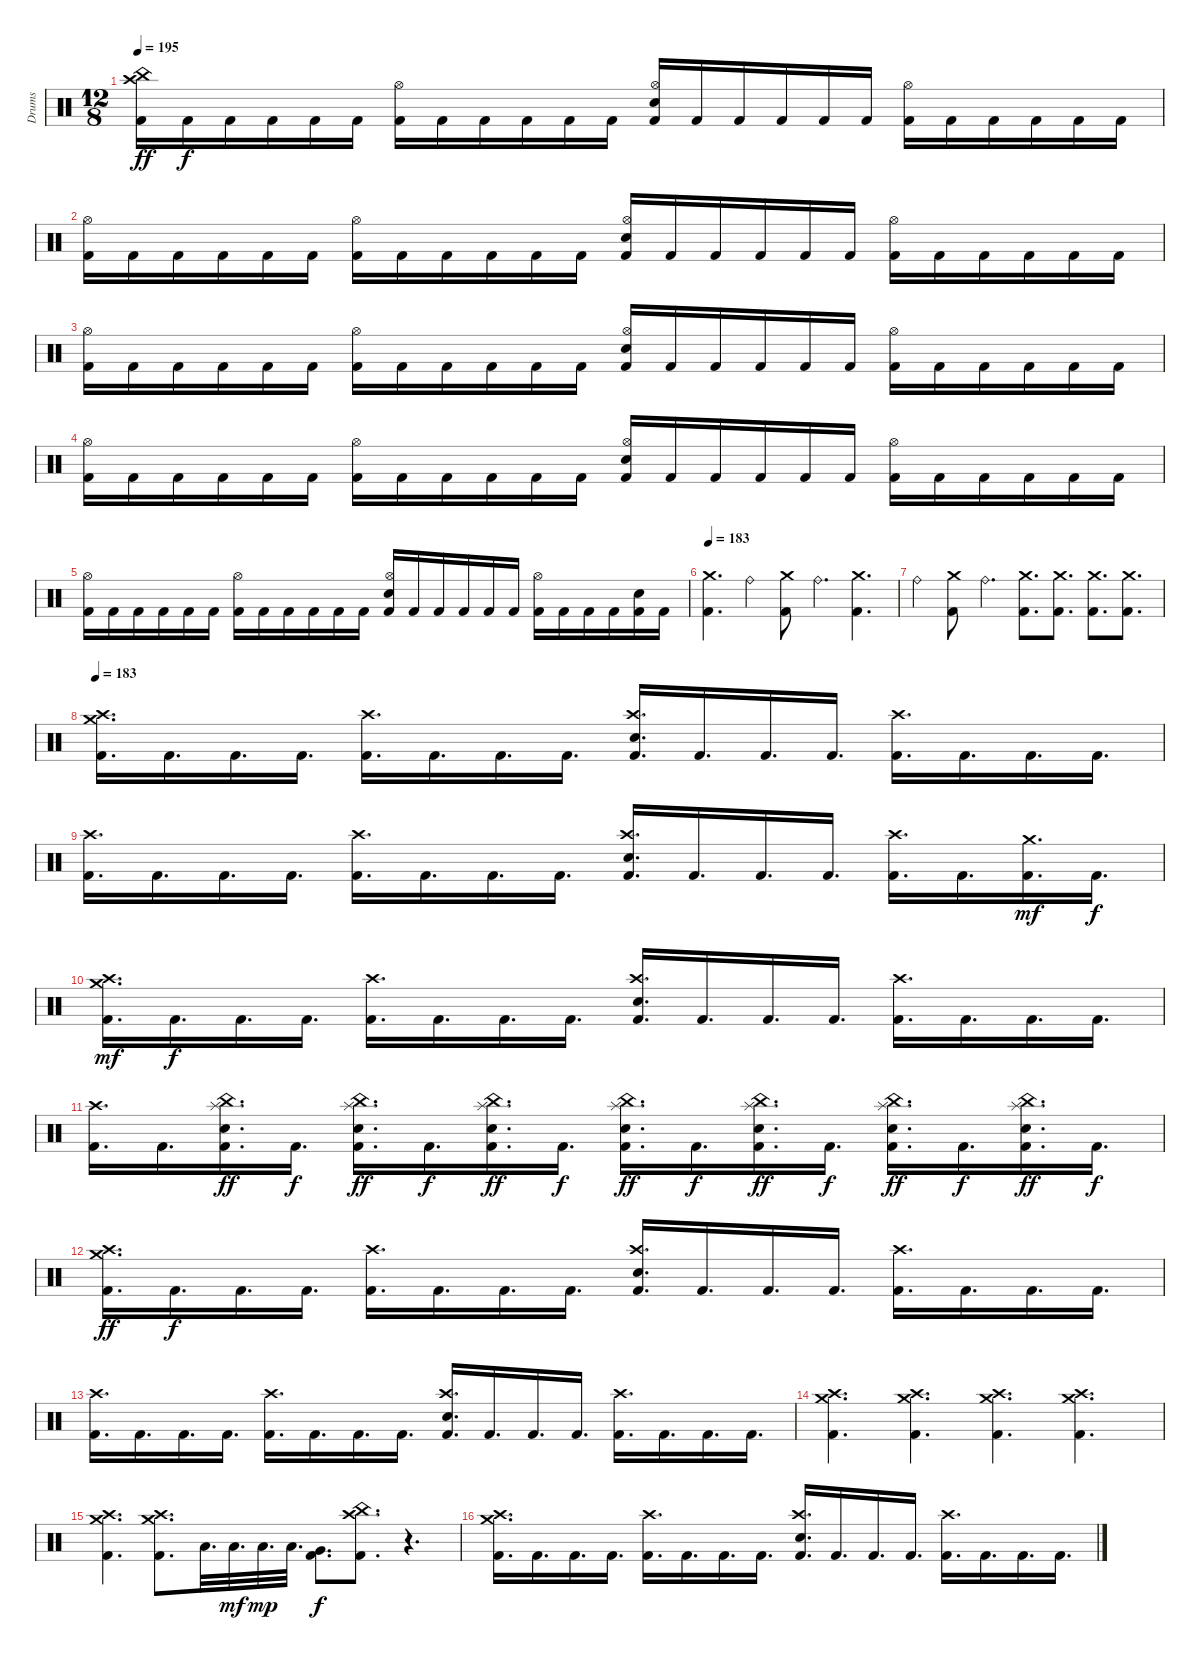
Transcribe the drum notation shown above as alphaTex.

\track ("Drums" "Drums") {instrument percussion}
\staff {score}
\articulation defaults
\ts (12 8)
\tempo 195
\clef neutral
\ks c
("Kick (hit) 2" "Crash high (hit)" "China (hit)").16{dy ff} "Kick (hit) 2".16{dy f} "Kick (hit) 2".16 "Kick (hit) 2".16 "Kick (hit) 2".16 "Kick (hit) 2".16 ("Kick (hit) 2" "Hi-Hat (open)").16 "Kick (hit) 2".16 "Kick (hit) 2".16 "Kick (hit) 2".16 "Kick (hit) 2".16 "Kick (hit) 2".16 ("Kick (hit) 2" "Electric Snare (hit)" "Hi-Hat (open)").16 "Kick (hit) 2".16 "Kick (hit) 2".16 "Kick (hit) 2".16 "Kick (hit) 2".16 "Kick (hit) 2".16 ("Kick (hit) 2" "Hi-Hat (open)").16 "Kick (hit) 2".16 "Kick (hit) 2".16 "Kick (hit) 2".16 "Kick (hit) 2".16 "Kick (hit) 2".16 |
("Kick (hit) 2" "Hi-Hat (open)").16 "Kick (hit) 2".16 "Kick (hit) 2".16 "Kick (hit) 2".16 "Kick (hit) 2".16 "Kick (hit) 2".16 ("Kick (hit) 2" "Hi-Hat (open)").16 "Kick (hit) 2".16 "Kick (hit) 2".16 "Kick (hit) 2".16 "Kick (hit) 2".16 "Kick (hit) 2".16 ("Kick (hit) 2" "Electric Snare (hit)" "Hi-Hat (open)").16 "Kick (hit) 2".16 "Kick (hit) 2".16 "Kick (hit) 2".16 "Kick (hit) 2".16 "Kick (hit) 2".16 ("Kick (hit) 2" "Hi-Hat (open)").16 "Kick (hit) 2".16 "Kick (hit) 2".16 "Kick (hit) 2".16 "Kick (hit) 2".16 "Kick (hit) 2".16 |
("Kick (hit) 2" "Hi-Hat (open)").16 "Kick (hit) 2".16 "Kick (hit) 2".16 "Kick (hit) 2".16 "Kick (hit) 2".16 "Kick (hit) 2".16 ("Kick (hit) 2" "Hi-Hat (open)").16 "Kick (hit) 2".16 "Kick (hit) 2".16 "Kick (hit) 2".16 "Kick (hit) 2".16 "Kick (hit) 2".16 ("Kick (hit) 2" "Electric Snare (hit)" "Hi-Hat (open)").16 "Kick (hit) 2".16 "Kick (hit) 2".16 "Kick (hit) 2".16 "Kick (hit) 2".16 "Kick (hit) 2".16 ("Kick (hit) 2" "Hi-Hat (open)").16 "Kick (hit) 2".16 "Kick (hit) 2".16 "Kick (hit) 2".16 "Kick (hit) 2".16 "Kick (hit) 2".16 |
("Kick (hit) 2" "Hi-Hat (open)").16 "Kick (hit) 2".16 "Kick (hit) 2".16 "Kick (hit) 2".16 "Kick (hit) 2".16 "Kick (hit) 2".16 ("Kick (hit) 2" "Hi-Hat (open)").16 "Kick (hit) 2".16 "Kick (hit) 2".16 "Kick (hit) 2".16 "Kick (hit) 2".16 "Kick (hit) 2".16 ("Kick (hit) 2" "Electric Snare (hit)" "Hi-Hat (open)").16 "Kick (hit) 2".16 "Kick (hit) 2".16 "Kick (hit) 2".16 "Kick (hit) 2".16 "Kick (hit) 2".16 ("Kick (hit) 2" "Hi-Hat (open)").16 "Kick (hit) 2".16 "Kick (hit) 2".16 "Kick (hit) 2".16 "Kick (hit) 2".16 "Kick (hit) 2".16 |
("Kick (hit) 2" "Hi-Hat (open)").16 "Kick (hit) 2".16 "Kick (hit) 2".16 "Kick (hit) 2".16 "Kick (hit) 2".16 "Kick (hit) 2".16 ("Kick (hit) 2" "Hi-Hat (open)").16 "Kick (hit) 2".16 "Kick (hit) 2".16 "Kick (hit) 2".16 "Kick (hit) 2".16 "Kick (hit) 2".16 ("Kick (hit) 2" "Electric Snare (hit)" "Hi-Hat (open)").16 "Kick (hit) 2".16 "Kick (hit) 2".16 "Kick (hit) 2".16 "Kick (hit) 2".16 "Kick (hit) 2".16 ("Kick (hit) 2" "Hi-Hat (open)").16 "Kick (hit) 2".16 "Kick (hit) 2".16 "Kick (hit) 2".16 ("Kick (hit) 2" "Electric Snare (hit)").16 "Kick (hit) 2".16 |
\tempo 183
("Kick (hit) 2" "Crash medium (hit)").4{d} "Ride (bell)".4 ("Kick (hit) 2" "Crash medium (hit)").8 "Ride (bell)".4{d} ("Kick (hit) 2" "Crash medium (hit)").4{d} |
"Ride (bell)".4 ("Kick (hit) 2" "Crash medium (hit)").8 "Ride (bell)".4{d} ("Kick (hit) 2" "Crash medium (hit)").8{d} ("Kick (hit) 2" "Crash medium (hit)").8{d} ("Kick (hit) 2" "Crash medium (hit)").8{d} ("Kick (hit) 2" "Crash medium (hit)").8{d} |
\tempo 183
("Kick (hit) 2" "Crash high (hit)" "Crash medium (hit)").16{d} "Kick (hit) 2".16{d} "Kick (hit) 2".16{d} "Kick (hit) 2".16{d} ("Kick (hit) 2" "Crash high (hit)").16{d} "Kick (hit) 2".16{d} "Kick (hit) 2".16{d} "Kick (hit) 2".16{d} ("Kick (hit) 2" "Electric Snare (hit)" "Crash high (hit)").16{d} "Kick (hit) 2".16{d} "Kick (hit) 2".16{d} "Kick (hit) 2".16{d} ("Kick (hit) 2" "Crash high (hit)").16{d} "Kick (hit) 2".16{d} "Kick (hit) 2".16{d} "Kick (hit) 2".16{d} |
("Kick (hit) 2" "Crash high (hit)").16{d} "Kick (hit) 2".16{d} "Kick (hit) 2".16{d} "Kick (hit) 2".16{d} ("Kick (hit) 2" "Crash high (hit)").16{d} "Kick (hit) 2".16{d} "Kick (hit) 2".16{d} "Kick (hit) 2".16{d} ("Kick (hit) 2" "Electric Snare (hit)" "Crash high (hit)").16{d} "Kick (hit) 2".16{d} "Kick (hit) 2".16{d} "Kick (hit) 2".16{d} ("Kick (hit) 2" "Crash high (hit)").16{d} "Kick (hit) 2".16{d} ("Kick (hit) 2" "Crash medium (hit)").16{d dy mf} "Kick (hit) 2".16{d dy f} |
("Kick (hit) 2" "Crash high (hit)" "Crash medium (hit)").16{d dy mf} "Kick (hit) 2".16{d dy f} "Kick (hit) 2".16{d} "Kick (hit) 2".16{d} ("Kick (hit) 2" "Crash high (hit)").16{d} "Kick (hit) 2".16{d} "Kick (hit) 2".16{d} "Kick (hit) 2".16{d} ("Kick (hit) 2" "Electric Snare (hit)" "Crash high (hit)").16{d} "Kick (hit) 2".16{d} "Kick (hit) 2".16{d} "Kick (hit) 2".16{d} ("Kick (hit) 2" "Crash high (hit)").16{d} "Kick (hit) 2".16{d} "Kick (hit) 2".16{d} "Kick (hit) 2".16{d} |
("Kick (hit) 2" "Crash high (hit)").16{d} "Kick (hit) 2".16{d} ("Kick (hit) 2" "Electric Snare (hit)" "Splash (hit)" "China (hit)").16{d dy ff} "Kick (hit) 2".16{d dy f} ("Kick (hit) 2" "Electric Snare (hit)" "Splash (hit)" "China (hit)").16{d dy ff} "Kick (hit) 2".16{d dy f} ("Kick (hit) 2" "Electric Snare (hit)" "Splash (hit)" "China (hit)").16{d dy ff} "Kick (hit) 2".16{d dy f} ("Kick (hit) 2" "Electric Snare (hit)" "Splash (hit)" "China (hit)").16{d dy ff} "Kick (hit) 2".16{d dy f} ("Kick (hit) 2" "Electric Snare (hit)" "Splash (hit)" "China (hit)").16{d dy ff} "Kick (hit) 2".16{d dy f} ("Kick (hit) 2" "Electric Snare (hit)" "Splash (hit)" "China (hit)").16{d dy ff} "Kick (hit) 2".16{d dy f} ("Kick (hit) 2" "Electric Snare (hit)" "Splash (hit)" "China (hit)").16{d dy ff} "Kick (hit) 2".16{d dy f} |
("Kick (hit) 2" "Crash high (hit)" "Crash medium (hit)").16{d dy ff} "Kick (hit) 2".16{d dy f} "Kick (hit) 2".16{d} "Kick (hit) 2".16{d} ("Kick (hit) 2" "Crash high (hit)").16{d} "Kick (hit) 2".16{d} "Kick (hit) 2".16{d} "Kick (hit) 2".16{d} ("Kick (hit) 2" "Electric Snare (hit)" "Crash high (hit)").16{d} "Kick (hit) 2".16{d} "Kick (hit) 2".16{d} "Kick (hit) 2".16{d} ("Kick (hit) 2" "Crash high (hit)").16{d} "Kick (hit) 2".16{d} "Kick (hit) 2".16{d} "Kick (hit) 2".16{d} |
("Kick (hit) 2" "Crash high (hit)").16{d} "Kick (hit) 2".16{d} "Kick (hit) 2".16{d} "Kick (hit) 2".16{d} ("Kick (hit) 2" "Crash high (hit)").16{d} "Kick (hit) 2".16{d} "Kick (hit) 2".16{d} "Kick (hit) 2".16{d} ("Kick (hit) 2" "Electric Snare (hit)" "Crash high (hit)").16{d} "Kick (hit) 2".16{d} "Kick (hit) 2".16{d} "Kick (hit) 2".16{d} ("Kick (hit) 2" "Crash high (hit)").16{d} "Kick (hit) 2".16{d} "Kick (hit) 2".16{d} "Kick (hit) 2".16{d} |
("Kick (hit) 2" "Crash high (hit)" "Crash medium (hit)").4{d} ("Kick (hit) 2" "Crash high (hit)" "Crash medium (hit)").4{d} ("Kick (hit) 2" "Crash high (hit)" "Crash medium (hit)").4{d} ("Kick (hit) 2" "Crash high (hit)" "Crash medium (hit)").4{d} |
("Kick (hit) 2" "Crash high (hit)" "Crash medium (hit)").4{d} ("Kick (hit) 2" "Crash high (hit)" "Crash medium (hit)").8{d} "Low Tom (hit)".32{d} "Low Tom (hit)".32{d dy mf} "Low Tom (hit)".32{d dy mp} "Low Tom (hit)".32{d} ("Kick (hit) 2" "Very Low Tom (hit)").8{d dy f} ("Kick (hit) 2" "Crash high (hit)" "China (hit)").8{d} r.4{d} |
("Kick (hit) 2" "Crash high (hit)" "Crash medium (hit)").16{d} "Kick (hit) 2".16{d} "Kick (hit) 2".16{d} "Kick (hit) 2".16{d} ("Kick (hit) 2" "Crash high (hit)").16{d} "Kick (hit) 2".16{d} "Kick (hit) 2".16{d} "Kick (hit) 2".16{d} ("Kick (hit) 2" "Electric Snare (hit)" "Crash high (hit)").16{d} "Kick (hit) 2".16{d} "Kick (hit) 2".16{d} "Kick (hit) 2".16{d} ("Kick (hit) 2" "Crash high (hit)").16{d} "Kick (hit) 2".16{d} "Kick (hit) 2".16{d} "Kick (hit) 2".16{d}
